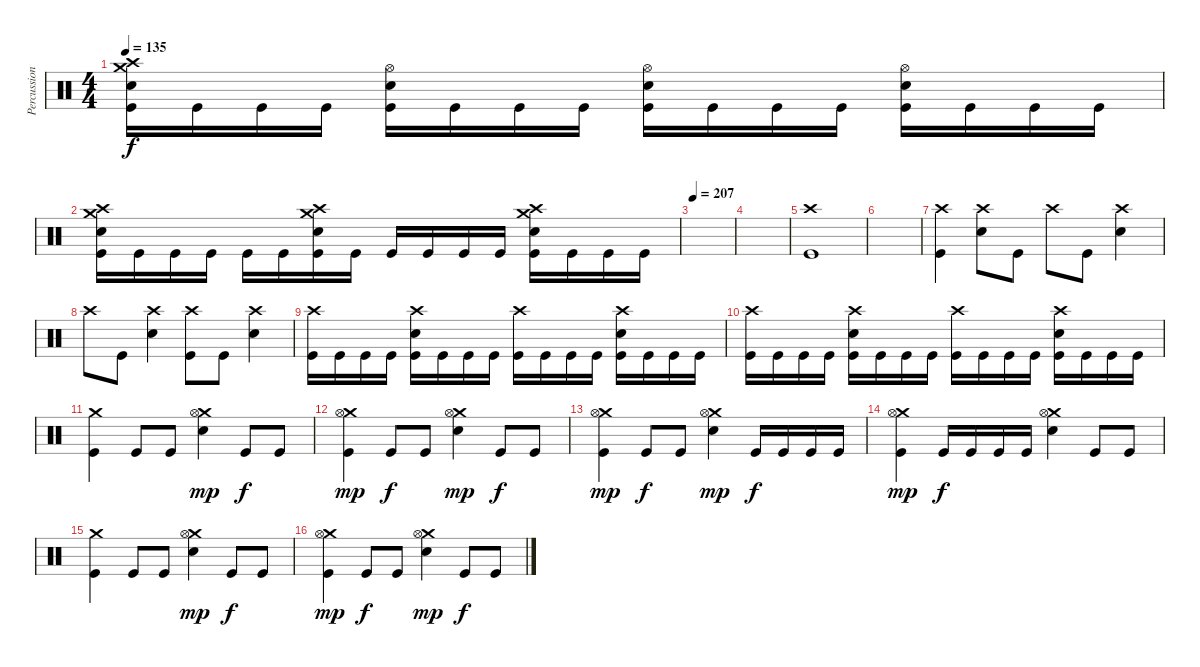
\track ("Percussion" "Percussion") {instrument percussion}
\staff {score}
\articulation defaults
\ts (4 4)
\tempo 135
\clef neutral
\ks c
("Crash high (hit)" "Crash medium (hit)" "Electric Snare (hit)" "Kick (hit)").16{dy f} "Kick (hit)".16 "Kick (hit)".16 "Kick (hit)".16 ("Hi-Hat (open)" "Electric Snare (hit)" "Kick (hit)").16 "Kick (hit)".16 "Kick (hit)".16 "Kick (hit)".16 ("Hi-Hat (open)" "Electric Snare (hit)" "Kick (hit)").16 "Kick (hit)".16 "Kick (hit)".16 "Kick (hit)".16 ("Hi-Hat (open)" "Electric Snare (hit)" "Kick (hit)").16 "Kick (hit)".16 "Kick (hit)".16 "Kick (hit)".16 |
("Crash high (hit)" "Crash medium (hit)" "Electric Snare (hit)" "Kick (hit)").16 "Kick (hit)".16 "Kick (hit)".16 "Kick (hit)".16 "Kick (hit)".16 "Kick (hit)".16 ("Crash high (hit)" "Crash medium (hit)" "Electric Snare (hit)" "Kick (hit)").16 "Kick (hit)".16 "Kick (hit)".16 "Kick (hit)".16 "Kick (hit)".16 "Kick (hit)".16 ("Crash high (hit)" "Crash medium (hit)" "Electric Snare (hit)" "Kick (hit)").16 "Kick (hit)".16 "Kick (hit)".16 "Kick (hit)".16 |
\tempo 207
|
|
("Crash high (hit)" "Kick (hit)").1 |
|
("Crash high (hit)" "Kick (hit)").4 ("Crash high (hit)" "Electric Snare (hit)").8 "Kick (hit)".8 "Crash high (hit)".8 "Kick (hit)".8 ("Crash high (hit)" "Electric Snare (hit)").4 |
"Crash high (hit)".8 "Kick (hit)".8 ("Crash high (hit)" "Electric Snare (hit)").4 ("Crash high (hit)" "Kick (hit)").8 "Kick (hit)".8 ("Crash high (hit)" "Electric Snare (hit)").4 |
("Crash high (hit)" "Kick (hit)").16 "Kick (hit)".16 "Kick (hit)".16 "Kick (hit)".16 ("Crash high (hit)" "Electric Snare (hit)" "Kick (hit)").16 "Kick (hit)".16 "Kick (hit)".16 "Kick (hit)".16 ("Crash high (hit)" "Kick (hit)").16 "Kick (hit)".16 "Kick (hit)".16 "Kick (hit)".16 ("Crash high (hit)" "Electric Snare (hit)" "Kick (hit)").16 "Kick (hit)".16 "Kick (hit)".16 "Kick (hit)".16 |
("Crash high (hit)" "Kick (hit)").16 "Kick (hit)".16 "Kick (hit)".16 "Kick (hit)".16 ("Crash high (hit)" "Electric Snare (hit)" "Kick (hit)").16 "Kick (hit)".16 "Kick (hit)".16 "Kick (hit)".16 ("Crash high (hit)" "Kick (hit)").16 "Kick (hit)".16 "Kick (hit)".16 "Kick (hit)".16 ("Crash high (hit)" "Electric Snare (hit)" "Kick (hit)").16 "Kick (hit)".16 "Kick (hit)".16 "Kick (hit)".16 |
("Crash medium (hit)" "Kick (hit)").4 "Kick (hit)".8 "Kick (hit)".8 ("Crash medium (hit)" "Hi-Hat (open)" "Electric Snare (hit)").4{dy mp} "Kick (hit)".8{dy f} "Kick (hit)".8 |
("Crash medium (hit)" "Hi-Hat (open)" "Kick (hit)").4{dy mp} "Kick (hit)".8{dy f} "Kick (hit)".8 ("Crash medium (hit)" "Hi-Hat (open)" "Electric Snare (hit)").4{dy mp} "Kick (hit)".8{dy f} "Kick (hit)".8 |
("Crash medium (hit)" "Hi-Hat (open)" "Kick (hit)").4{dy mp} "Kick (hit)".8{dy f} "Kick (hit)".8 ("Crash medium (hit)" "Hi-Hat (open)" "Electric Snare (hit)").4{dy mp} "Kick (hit)".16{dy f} "Kick (hit)".16 "Kick (hit)".16 "Kick (hit)".16 |
("Crash medium (hit)" "Hi-Hat (open)" "Kick (hit)").4{dy mp} "Kick (hit)".16{dy f} "Kick (hit)".16 "Kick (hit)".16 "Kick (hit)".16 ("Crash medium (hit)" "Hi-Hat (open)" "Electric Snare (hit)").4 "Kick (hit)".8 "Kick (hit)".8 |
("Crash medium (hit)" "Kick (hit)").4 "Kick (hit)".8 "Kick (hit)".8 ("Crash medium (hit)" "Hi-Hat (open)" "Electric Snare (hit)").4{dy mp} "Kick (hit)".8{dy f} "Kick (hit)".8 |
("Crash medium (hit)" "Hi-Hat (open)" "Kick (hit)").4{dy mp} "Kick (hit)".8{dy f} "Kick (hit)".8 ("Crash medium (hit)" "Hi-Hat (open)" "Electric Snare (hit)").4{dy mp} "Kick (hit)".8{dy f} "Kick (hit)".8
